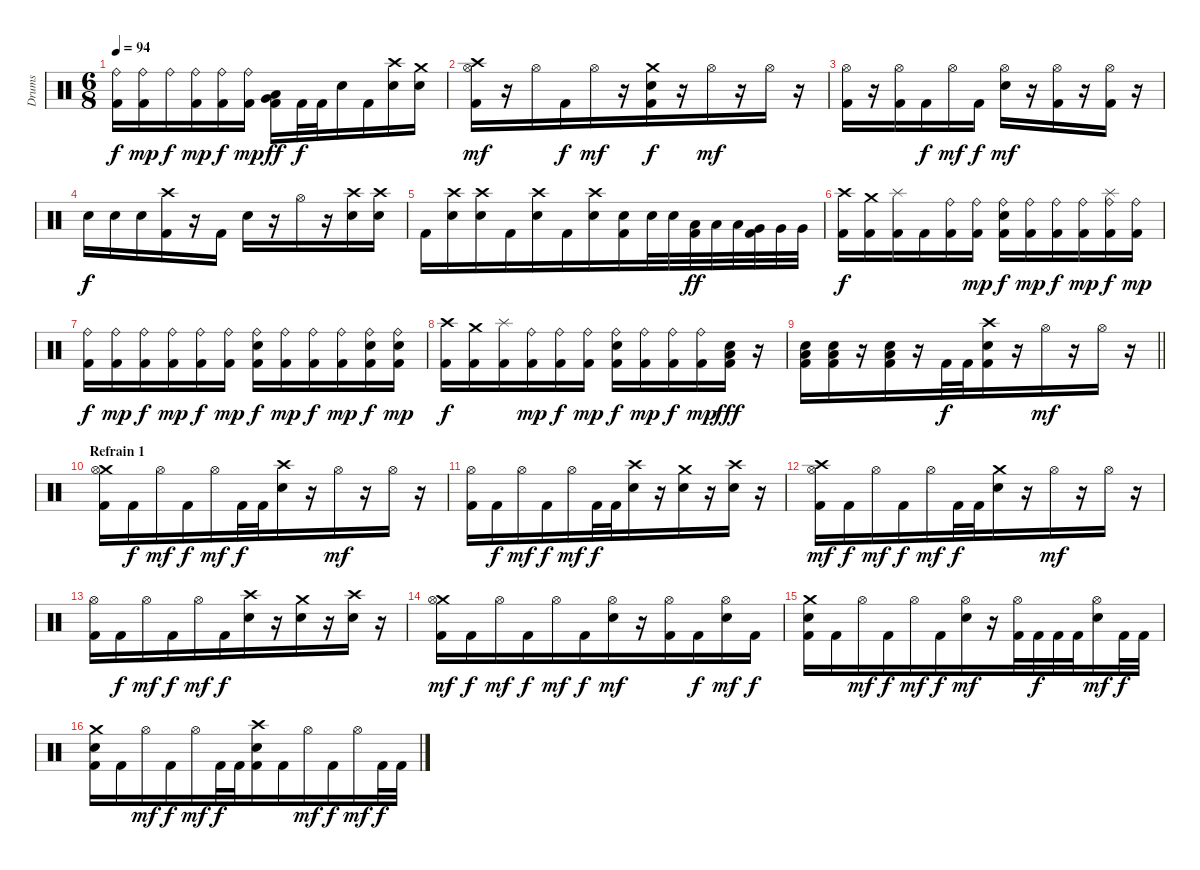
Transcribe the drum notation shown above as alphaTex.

\track ("Drums" "Drums") {instrument percussion}
\staff {score}
\articulation defaults
\ts (6 8)
\tempo 94
\clef neutral
\ks c
("Ride (bell)" "Kick (hit) 2").16{dy f beam merge} ("Ride (bell)" "Kick (hit) 2").16{dy mp beam merge} "Ride (bell)".16{dy f} ("Ride (bell)" "Kick (hit) 2").16{dy mp beam merge} ("Ride (bell)" "Kick (hit) 2").16{dy f} ("Ride (bell)" "Kick (hit) 2").16{dy mp} ("Very Low Tom (hit)" "Low Floor Tom (hit)" "Kick (hit) 2").16{dy ff beam merge} "Kick (hit) 2".32{dy f} "Kick (hit) 2".32{beam merge} "Snare (hit) 2".16 "Kick (hit) 2".16 ("Crash high (hit)" "Snare (hit) 2").16 ("Crash medium (hit)" "Snare (hit) 2").16 |
("Crash high (hit)" "Hi-Hat (open)" "Kick (hit) 2").16{dy mf} r.16 "Hi-Hat (open)".16{beam merge} "Kick (hit) 2".16{dy f} "Hi-Hat (open)".16{dy mf beam merge} r.16 ("Crash medium (hit)" "Snare (hit) 2" "Kick (hit) 2").16{dy f} r.16 "Hi-Hat (open)".16{dy mf} r.16{beam merge} "Hi-Hat (open)".16{beam merge} r.16 |
("Hi-Hat (open)" "Kick (hit) 2").16 r.16 ("Hi-Hat (open)" "Kick (hit) 2").16{beam merge} "Kick (hit) 2".16{dy f} "Hi-Hat (open)".16{dy mf beam merge} "Kick (hit) 2".16{dy f} ("Hi-Hat (open)" "Snare (hit) 2").16{dy mf} r.16 ("Hi-Hat (open)" "Kick (hit) 2").16 r.16{beam merge} ("Hi-Hat (open)" "Kick (hit) 2").16{beam merge} r.16 |
"Snare (hit) 2".16{dy f} "Snare (hit) 2".16{beam merge} "Snare (hit) 2".16{beam merge} ("Crash high (hit)" "Kick (hit) 2").16 r.16 "Kick (hit) 2".16 "Snare (hit) 2".16 r.16 "Hi-Hat (open)".16 r.16 ("Crash high (hit)" "Snare (hit) 2").16{beam merge} ("Crash high (hit)" "Snare (hit) 2").16 |
"Kick (hit) 2".16 ("Crash high (hit)" "Snare (hit) 2").16{beam merge} ("Crash high (hit)" "Snare (hit) 2").16 "Kick (hit) 2".16 ("Crash high (hit)" "Snare (hit) 2").16{beam merge} "Kick (hit) 2".16{beam merge} ("Crash high (hit)" "Snare (hit) 2").16 ("Snare (hit) 2" "Kick (hit) 2").16{beam merge} "Snare (hit) 2".32{beam merge} "Snare (hit) 2".32 ("Low Tom (hit)" "Kick (hit) 2").32{dy ff beam merge} "Low Tom (hit)".32 "Low Tom (hit)".32{beam merge} ("Very Low Tom (hit)" "Kick (hit) 2").32 "Very Low Tom (hit)".32 "Very Low Tom (hit)".32 |
("Crash high (hit)" "Kick (hit) 2").16{dy f beam merge} ("Crash medium (hit)" "Kick (hit) 2").16{beam merge} ("Splash (hit)" "Kick (hit) 2").16 "Kick (hit) 2".16{beam merge} ("Ride (bell)" "Kick (hit) 2").16 ("Ride (bell)" "Kick (hit) 2").16{dy mp} ("Ride (bell)" "Snare (hit) 2" "Kick (hit) 2").16{dy f} ("Ride (bell)" "Kick (hit) 2").16{dy mp} ("Ride (bell)" "Kick (hit) 2").16{dy f beam merge} ("Ride (bell)" "Kick (hit) 2").16{dy mp beam merge} ("Splash (hit)" "Ride (bell)" "Kick (hit) 2").16{dy f} ("Ride (bell)" "Kick (hit) 2").16{dy mp} |
("Ride (bell)" "Kick (hit) 2").16{dy f beam merge} ("Ride (bell)" "Kick (hit) 2").16{dy mp beam merge} ("Ride (bell)" "Kick (hit) 2").16{dy f} ("Ride (bell)" "Kick (hit) 2").16{dy mp beam merge} ("Ride (bell)" "Kick (hit) 2").16{dy f} ("Ride (bell)" "Kick (hit) 2").16{dy mp} ("Ride (bell)" "Snare (hit) 2" "Kick (hit) 2").16{dy f} ("Ride (bell)" "Kick (hit) 2").16{dy mp} ("Ride (bell)" "Kick (hit) 2").16{dy f beam merge} ("Ride (bell)" "Kick (hit) 2").16{dy mp beam merge} ("Ride (bell)" "Snare (hit) 2" "Kick (hit) 2").16{dy f} ("Ride (bell)" "Snare (hit) 2" "Kick (hit) 2").16{dy mp} |
("Crash high (hit)" "Kick (hit) 2").16{dy f beam merge} ("Crash medium (hit)" "Kick (hit) 2").16{beam merge} ("Splash (hit)" "Kick (hit) 2").16 ("Ride (bell)" "Kick (hit) 2").16{dy mp beam merge} ("Ride (bell)" "Kick (hit) 2").16{dy f} ("Ride (bell)" "Kick (hit) 2").16{dy mp} ("Ride (bell)" "Snare (hit) 2" "Kick (hit) 2").16{dy f} ("Ride (bell)" "Kick (hit) 2").16{dy mp} ("Ride (bell)" "Kick (hit) 2").16{dy f beam merge} ("Ride (bell)" "Kick (hit) 2").16{dy mp beam merge} ("Low Floor Tom (hit)" "Snare (hit) 2" "Kick (hit) 2").16{dy fff} r.16 |
\barLineRight lightlight
("Low Floor Tom (hit)" "Snare (hit) 2" "Kick (hit) 2").16 ("Low Floor Tom (hit)" "Snare (hit) 2" "Kick (hit) 2").16{beam merge} r.16 ("Low Floor Tom (hit)" "Snare (hit) 2" "Kick (hit) 2").16 r.16 "Kick (hit) 2".32{dy f} "Kick (hit) 2".32{beam merge} ("Crash high (hit)" "Snare (hit) 2" "Kick (hit) 2").16{beam merge} r.16{beam merge} "Hi-Hat (open)".16{dy mf} r.16 "Hi-Hat (open)".16 r.16 |
\section ("" "Refrain 1")
("Crash medium (hit)" "Hi-Hat (open)" "Kick (hit) 2").16{beam merge} "Kick (hit) 2".16{dy f beam merge} "Hi-Hat (open)".16{dy mf beam merge} "Kick (hit) 2".16{dy f} "Hi-Hat (open)".16{dy mf beam merge} "Kick (hit) 2".32{dy f beam merge} "Kick (hit) 2".32{beam merge} ("Crash high (hit)" "Snare (hit) 2").16 r.16 "Hi-Hat (open)".16{dy mf} r.16 "Hi-Hat (open)".16 r.16 |
("Hi-Hat (open)" "Kick (hit) 2").16{beam merge} "Kick (hit) 2".16{dy f beam merge} "Hi-Hat (open)".16{dy mf beam merge} "Kick (hit) 2".16{dy f} "Hi-Hat (open)".16{dy mf} "Kick (hit) 2".32{dy f beam merge} "Kick (hit) 2".32{beam merge} ("Crash high (hit)" "Snare (hit) 2").16 r.16 ("Crash medium (hit)" "Snare (hit) 2").16 r.16 ("Crash high (hit)" "Snare (hit) 2").16 r.16 |
("Crash high (hit)" "Hi-Hat (open)" "Kick (hit) 2").16{dy mf beam merge} "Kick (hit) 2".16{dy f beam merge} "Hi-Hat (open)".16{dy mf beam merge} "Kick (hit) 2".16{dy f} "Hi-Hat (open)".16{dy mf beam merge} "Kick (hit) 2".32{dy f beam merge} "Kick (hit) 2".32{beam merge} ("Crash medium (hit)" "Snare (hit) 2").16 r.16 "Hi-Hat (open)".16{dy mf} r.16 "Hi-Hat (open)".16 r.16 |
("Hi-Hat (open)" "Kick (hit) 2").16{beam merge} "Kick (hit) 2".16{dy f beam merge} "Hi-Hat (open)".16{dy mf beam merge} "Kick (hit) 2".16{dy f} "Hi-Hat (open)".16{dy mf} "Kick (hit) 2".16{dy f beam merge} ("Crash high (hit)" "Snare (hit) 2").16 r.16 ("Crash medium (hit)" "Snare (hit) 2").16 r.16 ("Crash high (hit)" "Snare (hit) 2").16 r.16 |
("Crash medium (hit)" "Hi-Hat (open)" "Kick (hit) 2").16{dy mf beam merge} "Kick (hit) 2".16{dy f beam merge} "Hi-Hat (open)".16{dy mf beam merge} "Kick (hit) 2".16{dy f} "Hi-Hat (open)".16{dy mf beam merge} "Kick (hit) 2".16{dy f beam merge} ("Hi-Hat (open)" "Snare (hit) 2").16{dy mf} r.16 ("Hi-Hat (open)" "Kick (hit) 2").16 "Kick (hit) 2".16{dy f} ("Hi-Hat (open)" "Snare (hit) 2").16{dy mf} "Kick (hit) 2".16{dy f} |
("Crash medium (hit)" "Snare (hit) 2" "Kick (hit) 2").16{beam merge} "Kick (hit) 2".16{beam merge} "Hi-Hat (open)".16{dy mf beam merge} "Kick (hit) 2".16{dy f} "Hi-Hat (open)".16{dy mf beam merge} "Kick (hit) 2".16{dy f beam merge} ("Hi-Hat (open)" "Snare (hit) 2").16{dy mf} r.16 ("Hi-Hat (open)" "Kick (hit) 2").32 "Kick (hit) 2".32{dy f} "Kick (hit) 2".32 "Kick (hit) 2".32 ("Hi-Hat (open)" "Snare (hit) 2").16{dy mf} "Kick (hit) 2".32{dy f} "Kick (hit) 2".32 |
("Crash medium (hit)" "Snare (hit) 2" "Kick (hit) 2").16{beam merge} "Kick (hit) 2".16{beam merge} "Hi-Hat (open)".16{dy mf beam merge} "Kick (hit) 2".16{dy f} "Hi-Hat (open)".16{dy mf} "Kick (hit) 2".32{dy f beam merge} "Kick (hit) 2".32{beam merge} ("Crash high (hit)" "Snare (hit) 2" "Kick (hit) 2").16 "Kick (hit) 2".16 "Hi-Hat (open)".16{dy mf} "Kick (hit) 2".16{dy f} "Hi-Hat (open)".16{dy mf} "Kick (hit) 2".32{dy f beam merge} "Kick (hit) 2".32
